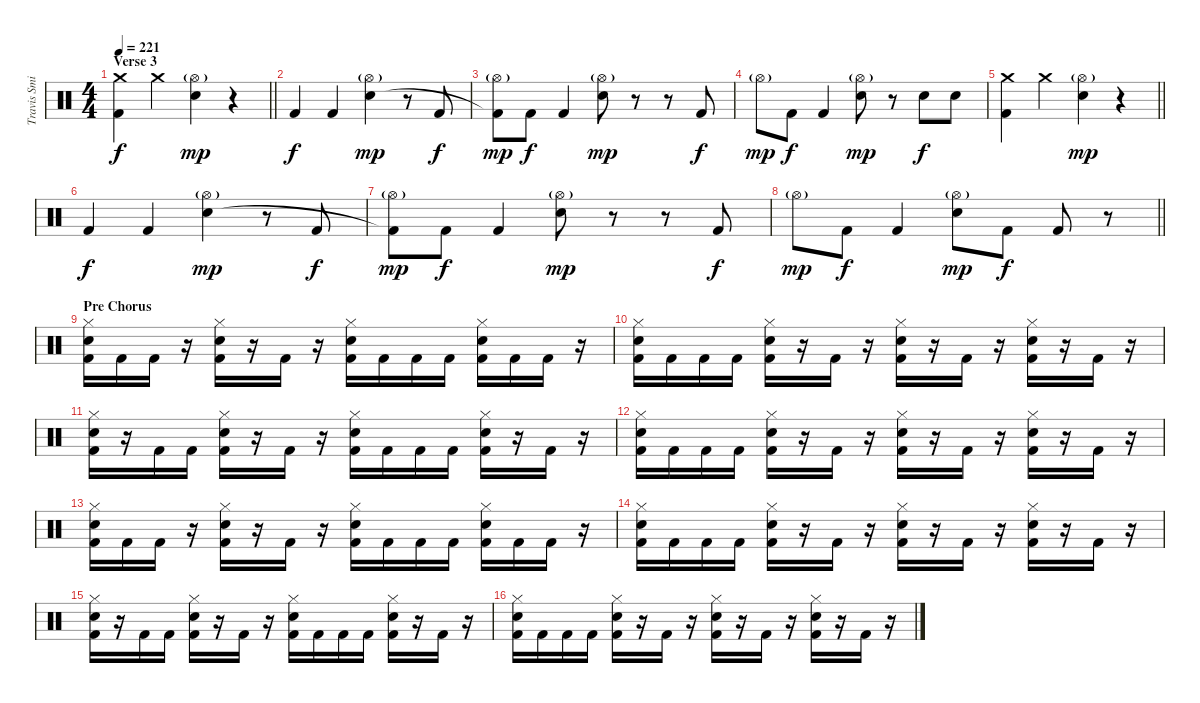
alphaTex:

\track ("Travis Smith" "Travis Smi") {instrument percussion}
\staff {score}
\articulation defaults
\ts (4 4)
\section ("" "Verse 3")
\tempo 221
\clef neutral
\barLineRight lightlight
\ks c
("Crash medium (hit)" "Kick (hit) 2").4{dy f} "Crash medium (hit)".4 ("Hi-Hat (open)"{g} "Electric Snare (hit)").4{dy mp} r.4 |
"Kick (hit) 2".4{dy f} "Kick (hit) 2".4 ("Hi-Hat (open)"{g} "Electric Snare (hit)").4{dy mp} r.8 "Kick (hit) 2".8{dy f} |
("Hi-Hat (open)"{g} "Kick (hit) 2"{t}).8{dy mp} "Kick (hit) 2".8{dy f} "Kick (hit) 2".4 ("Hi-Hat (open)"{g} "Electric Snare (hit)").8{dy mp} r.8 r.8 "Kick (hit) 2".8{dy f} |
"Hi-Hat (open)"{g}.8{dy mp} "Kick (hit) 2".8{dy f} "Kick (hit) 2".4 ("Hi-Hat (open)"{g} "Electric Snare (hit)").8{dy mp} r.8 "Electric Snare (hit)".8{dy f} "Electric Snare (hit)".8 |
\barLineRight lightlight
("Crash medium (hit)" "Kick (hit) 2").4 "Crash medium (hit)".4 ("Hi-Hat (open)"{g} "Electric Snare (hit)").4{dy mp} r.4 |
"Kick (hit) 2".4{dy f} "Kick (hit) 2".4 ("Hi-Hat (open)"{g} "Electric Snare (hit)").4{dy mp} r.8 "Kick (hit) 2".8{dy f} |
("Hi-Hat (open)"{g} "Kick (hit) 2"{t}).8{dy mp} "Kick (hit) 2".8{dy f} "Kick (hit) 2".4 ("Hi-Hat (open)"{g} "Electric Snare (hit)").8{dy mp} r.8 r.8 "Kick (hit) 2".8{dy f} |
\barLineRight lightlight "Hi-Hat (open)"{g}.8{dy mp} "Kick (hit) 2".8{dy f} "Kick (hit) 2".4
("Hi-Hat (open)"{g} "Electric Snare (hit)").8{dy mp} "Kick (hit) 2".8{dy f} "Kick (hit) 2".8 r.8 |
\section ("" "Pre Chorus")
("Hi-Hat (closed)" "Electric Snare (hit)" "Kick (hit) 2").16 "Kick (hit) 2".16 "Kick (hit) 2".16 r.16 ("Hi-Hat (closed)" "Electric Snare (hit)" "Kick (hit) 2").16 r.16 "Kick (hit) 2".16 r.16 ("Hi-Hat (closed)" "Electric Snare (hit)" "Kick (hit) 2").16 "Kick (hit) 2".16 "Kick (hit) 2".16 "Kick (hit) 2".16 ("Hi-Hat (closed)" "Electric Snare (hit)" "Kick (hit) 2").16 "Kick (hit) 2".16 "Kick (hit) 2".16 r.16 |
("Hi-Hat (closed)" "Electric Snare (hit)" "Kick (hit) 2").16 "Kick (hit) 2".16 "Kick (hit) 2".16 "Kick (hit) 2".16 ("Hi-Hat (closed)" "Electric Snare (hit)" "Kick (hit) 2").16 r.16 "Kick (hit) 2".16 r.16 ("Hi-Hat (closed)" "Electric Snare (hit)" "Kick (hit) 2").16 r.16 "Kick (hit) 2".16 r.16 ("Hi-Hat (closed)" "Electric Snare (hit)" "Kick (hit) 2").16 r.16 "Kick (hit) 2".16 r.16 |
("Hi-Hat (closed)" "Electric Snare (hit)" "Kick (hit) 2").16 r.16 "Kick (hit) 2".16 "Kick (hit) 2".16 ("Hi-Hat (closed)" "Electric Snare (hit)" "Kick (hit) 2").16 r.16 "Kick (hit) 2".16 r.16 ("Hi-Hat (closed)" "Electric Snare (hit)" "Kick (hit) 2").16 "Kick (hit) 2".16 "Kick (hit) 2".16 "Kick (hit) 2".16 ("Hi-Hat (closed)" "Electric Snare (hit)" "Kick (hit) 2").16 r.16 "Kick (hit) 2".16 r.16 |
("Hi-Hat (closed)" "Electric Snare (hit)" "Kick (hit) 2").16 "Kick (hit) 2".16 "Kick (hit) 2".16 "Kick (hit) 2".16 ("Hi-Hat (closed)" "Electric Snare (hit)" "Kick (hit) 2").16 r.16 "Kick (hit) 2".16 r.16 ("Hi-Hat (closed)" "Electric Snare (hit)" "Kick (hit) 2").16 r.16 "Kick (hit) 2".16 r.16 ("Hi-Hat (closed)" "Electric Snare (hit)" "Kick (hit) 2").16 r.16 "Kick (hit) 2".16 r.16 |
("Hi-Hat (closed)" "Electric Snare (hit)" "Kick (hit) 2").16 "Kick (hit) 2".16 "Kick (hit) 2".16 r.16 ("Hi-Hat (closed)" "Electric Snare (hit)" "Kick (hit) 2").16 r.16 "Kick (hit) 2".16 r.16 ("Hi-Hat (closed)" "Electric Snare (hit)" "Kick (hit) 2").16 "Kick (hit) 2".16 "Kick (hit) 2".16 "Kick (hit) 2".16 ("Hi-Hat (closed)" "Electric Snare (hit)" "Kick (hit) 2").16 "Kick (hit) 2".16 "Kick (hit) 2".16 r.16 |
("Hi-Hat (closed)" "Electric Snare (hit)" "Kick (hit) 2").16 "Kick (hit) 2".16 "Kick (hit) 2".16 "Kick (hit) 2".16 ("Hi-Hat (closed)" "Electric Snare (hit)" "Kick (hit) 2").16 r.16 "Kick (hit) 2".16 r.16 ("Hi-Hat (closed)" "Electric Snare (hit)" "Kick (hit) 2").16 r.16 "Kick (hit) 2".16 r.16 ("Hi-Hat (closed)" "Electric Snare (hit)" "Kick (hit) 2").16 r.16 "Kick (hit) 2".16 r.16 |
("Hi-Hat (closed)" "Electric Snare (hit)" "Kick (hit) 2").16 r.16 "Kick (hit) 2".16 "Kick (hit) 2".16 ("Hi-Hat (closed)" "Electric Snare (hit)" "Kick (hit) 2").16 r.16 "Kick (hit) 2".16 r.16 ("Hi-Hat (closed)" "Electric Snare (hit)" "Kick (hit) 2").16 "Kick (hit) 2".16 "Kick (hit) 2".16 "Kick (hit) 2".16 ("Hi-Hat (closed)" "Electric Snare (hit)" "Kick (hit) 2").16 r.16 "Kick (hit) 2".16 r.16 |
("Hi-Hat (closed)" "Electric Snare (hit)" "Kick (hit) 2").16 "Kick (hit) 2".16 "Kick (hit) 2".16 "Kick (hit) 2".16 ("Hi-Hat (closed)" "Electric Snare (hit)" "Kick (hit) 2").16 r.16 "Kick (hit) 2".16 r.16 ("Hi-Hat (closed)" "Electric Snare (hit)" "Kick (hit) 2").16 r.16 "Kick (hit) 2".16 r.16 ("Hi-Hat (closed)" "Electric Snare (hit)" "Kick (hit) 2").16 r.16 "Kick (hit) 2".16 r.16
